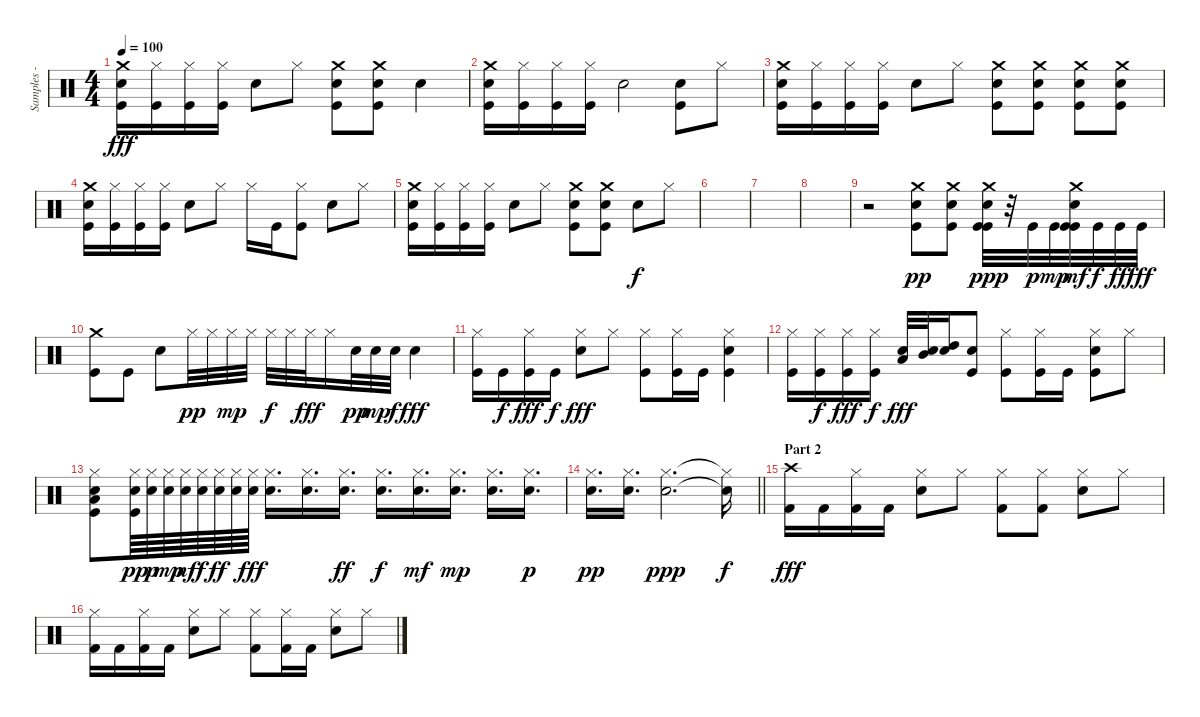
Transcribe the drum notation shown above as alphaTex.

\track ("Samples - Joe Hahn" "Samples - ") {instrument percussion}
\staff {score}
\articulation defaults
\ts (4 4)
\tempo 100
\clef neutral
\ks c
("Crash medium (hit)" "Snare (hit) 2" "Kick (hit)").16{dy fff} ("Hi-Hat (closed)" "Kick (hit)").16 ("Hi-Hat (closed)" "Kick (hit)").16 ("Hi-Hat (closed)" "Kick (hit)").16 "Snare (hit) 2".8 "Hi-Hat (closed)".8 ("Crash medium (hit)" "Snare (hit) 2" "Kick (hit)").8 ("Crash medium (hit)" "Snare (hit) 2" "Kick (hit)").8 "Snare (hit) 2".4 |
("Crash medium (hit)" "Snare (hit) 2" "Kick (hit)").16 ("Hi-Hat (closed)" "Kick (hit)").16 ("Hi-Hat (closed)" "Kick (hit)").16 ("Hi-Hat (closed)" "Kick (hit)").16 "Snare (hit) 2".2 ("Snare (hit) 2" "Kick (hit)").8 "Hi-Hat (closed)".8 |
("Crash medium (hit)" "Snare (hit) 2" "Kick (hit)").16 ("Hi-Hat (closed)" "Kick (hit)").16 ("Hi-Hat (closed)" "Kick (hit)").16 ("Hi-Hat (closed)" "Kick (hit)").16 "Snare (hit) 2".8 "Hi-Hat (closed)".8 ("Crash medium (hit)" "Snare (hit) 2" "Kick (hit)").8 ("Crash medium (hit)" "Snare (hit) 2" "Kick (hit)").8 ("Crash medium (hit)" "Snare (hit) 2" "Kick (hit)").8 ("Crash medium (hit)" "Snare (hit) 2" "Kick (hit)").8 |
("Crash medium (hit)" "Snare (hit) 2" "Kick (hit)").16 ("Hi-Hat (closed)" "Kick (hit)").16 ("Hi-Hat (closed)" "Kick (hit)").16 ("Hi-Hat (closed)" "Kick (hit)").16 "Snare (hit) 2".8 "Hi-Hat (closed)".8 "Hi-Hat (closed)".16 "Kick (hit)".16 ("Hi-Hat (closed)" "Kick (hit)").8 "Snare (hit) 2".8 "Hi-Hat (closed)".8 |
("Crash medium (hit)" "Snare (hit) 2" "Kick (hit)").16 ("Hi-Hat (closed)" "Kick (hit)").16 ("Hi-Hat (closed)" "Kick (hit)").16 ("Hi-Hat (closed)" "Kick (hit)").16 "Snare (hit) 2".8 "Hi-Hat (closed)".8 ("Crash medium (hit)" "Snare (hit) 2" "Kick (hit)").8 ("Crash medium (hit)" "Snare (hit) 2" "Kick (hit)").8 "Snare (hit) 2".8{dy f} "Hi-Hat (closed)".8 |
|
|
|
r.2 ("Crash medium (hit)" "Snare (hit) 2" "Kick (hit)").8{dy pp} ("Crash medium (hit)" "Snare (hit) 2" "Kick (hit)").8 ("Crash medium (hit)" "Snare (hit) 2" "Kick (hit)" "Kick (hit)").32{dy ppp} r.32 "Kick (hit)".32{dy p} "Kick (hit)".32{dy mp} ("Crash medium (hit)" "Snare (hit) 2" "Kick (hit)" "Kick (hit)").32{dy mf} "Kick (hit)".32{dy f} "Kick (hit)".32{dy ff} "Kick (hit)".32{dy fff} |
("Crash medium (hit)" "Kick (hit)").8 "Kick (hit)".8 "Snare (hit) 2".8 "Hi-Hat (closed)".32{dy pp} "Hi-Hat (closed)".32 "Hi-Hat (closed)".32{dy mp} "Hi-Hat (closed)".32 "Hi-Hat (closed)".32{dy f} "Hi-Hat (closed)".32 "Hi-Hat (closed)".32{dy fff} "Hi-Hat (closed)".16 "Electric Snare (hit)".32{dy pp} "Electric Snare (hit)".32{dy mp} "Electric Snare (hit)".32{dy f} "Electric Snare (hit)".4{dy fff} |
("Hi-Hat (closed)" "Kick (hit)").16 "Kick (hit)".16{dy f} ("Hi-Hat (closed)" "Kick (hit)").16{dy fff} "Kick (hit)".16{dy f} ("Hi-Hat (closed)" "Snare (hit) 2").8{dy fff} "Hi-Hat (closed)".8 ("Hi-Hat (closed)" "Kick (hit)").8 ("Hi-Hat (closed)" "Kick (hit)").16 "Kick (hit)".16 ("Hi-Hat (closed)" "Snare (hit) 2" "Kick (hit)").4 |
("Hi-Hat (closed)" "Kick (hit)").16 ("Hi-Hat (closed)" "Kick (hit)").16{dy f} ("Hi-Hat (closed)" "Kick (hit)").16{dy fff} ("Hi-Hat (closed)" "Kick (hit)").16{dy f} ("Snare (hit) 2" "Low Tom (hit)").32{dy fff} ("Mid Tom (hit)" "Snare (hit) 2").32 ("High Tom (hit)" "Snare (hit) 2").16 ("Snare (hit) 2" "Kick (hit)").8 ("Hi-Hat (closed)" "Kick (hit)").8 ("Hi-Hat (closed)" "Kick (hit)").16 "Kick (hit)".16 ("Hi-Hat (closed)" "Snare (hit) 2" "Kick (hit)").8 "Hi-Hat (closed)".8 |
("Hi-Hat (closed)" "Snare (hit) 2" "Low Tom (hit)" "Kick (hit)").8 ("Hi-Hat (closed)" "Electric Snare (hit)" "Kick (hit)").64{dy pp} ("Hi-Hat (closed)" "Electric Snare (hit)").64{dy p} ("Hi-Hat (closed)" "Electric Snare (hit)").64{dy mp} ("Hi-Hat (closed)" "Electric Snare (hit)").64{dy mf} ("Hi-Hat (closed)" "Electric Snare (hit)").64{dy f} ("Hi-Hat (closed)" "Electric Snare (hit)").64{dy ff} ("Hi-Hat (closed)" "Electric Snare (hit)").64 ("Hi-Hat (closed)" "Electric Snare (hit)").64{dy fff} ("Hi-Hat (closed)" "Electric Snare (hit)").16{d} ("Hi-Hat (closed)" "Electric Snare (hit)").16{d} ("Hi-Hat (closed)" "Electric Snare (hit)").16{d dy ff} ("Hi-Hat (closed)" "Electric Snare (hit)").16{d dy f} ("Hi-Hat (closed)" "Electric Snare (hit)").16{d dy mf} ("Hi-Hat (closed)" "Electric Snare (hit)").16{d dy mp} ("Hi-Hat (closed)" "Electric Snare (hit)").16{d} ("Hi-Hat (closed)" "Electric Snare (hit)").16{d dy p} |
\barLineRight lightlight
("Hi-Hat (closed)" "Electric Snare (hit)").16{d dy pp} ("Hi-Hat (closed)" "Electric Snare (hit)").16{d} ("Hi-Hat (closed)" "Electric Snare (hit)").2{d dy ppp} ("Hi-Hat (closed)"{t} "Electric Snare (hit)"{t}).16{dy f} |
\section ("" "Part 2")
("Crash high (hit)" "Kick (hit) 2").16{dy fff volume 16} "Kick (hit) 2".16 ("Hi-Hat (closed)" "Kick (hit) 2").16 "Kick (hit) 2".16 ("Hi-Hat (closed)" "Electric Snare (hit)").8 "Hi-Hat (closed)".8 ("Hi-Hat (closed)" "Kick (hit) 2").8 ("Hi-Hat (closed)" "Kick (hit) 2").8 ("Hi-Hat (closed)" "Electric Snare (hit)").8 "Hi-Hat (closed)".8 |
("Hi-Hat (closed)" "Kick (hit) 2").16 "Kick (hit) 2".16 ("Hi-Hat (closed)" "Kick (hit) 2").16 "Kick (hit) 2".16 ("Hi-Hat (closed)" "Electric Snare (hit)").8 "Hi-Hat (closed)".8 ("Hi-Hat (closed)" "Kick (hit) 2").8 ("Hi-Hat (closed)" "Kick (hit) 2").16 "Kick (hit) 2".16 ("Hi-Hat (closed)" "Electric Snare (hit)").8 "Hi-Hat (closed)".8
